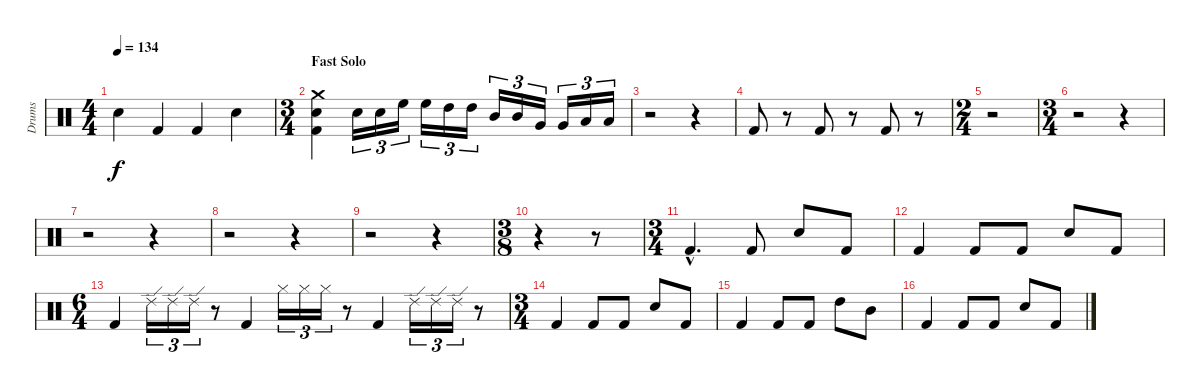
\track ("Drums" "Drums") {instrument percussion}
\staff {score}
\articulation defaults
\ts (4 4)
\tempo 134
\clef neutral
\ks c "Snare (hit) 2".4{dy f} "Kick (hit) 2".4 "Kick (hit) 2".4 "Snare (hit) 2".4
|
\ts (3 4)
\section ("" "Fast Solo")
("Kick (hit) 2" "Snare (hit) 2" "Crash medium (hit)").4 "Snare (hit) 2".16{tu (3 2)} "Snare (hit) 2".16{tu (3 2)} "High Floor Tom (hit)".16{tu (3 2)} "High Floor Tom (hit)".16{tu (3 2)} "High Tom (hit)".16{tu (3 2)} "High Tom (hit)".16{tu (3 2)} "Mid Tom (hit)".16{tu (3 2)} "Mid Tom (hit)".16{tu (3 2)} "Very Low Tom (hit)".16{tu (3 2)} "Very Low Tom (hit)".16{tu (3 2)} "Low Floor Tom (hit)".16{tu (3 2)} "Low Floor Tom (hit)".16{tu (3 2)} |
r.2 r.4 |
"Kick (hit) 2".8 r.8 "Kick (hit) 2".8 r.8 "Kick (hit) 2".8 r.8 |
\ts (2 4)
r.2 |
\ts (3 4)
r.2 r.4 |
r.2 r.4 |
r.2 r.4 |
r.2 r.4 |
\ts (3 8)
r.4 r.8 |
\ts (3 4)
"Kick (hit) 2"{hac}.4{d} "Kick (hit) 2".8 "Snare (hit) 2".8 "Kick (hit) 2".8 |
"Kick (hit) 2".4 "Kick (hit) 2".8 "Kick (hit) 2".8 "Snare (hit) 2".8 "Kick (hit) 2".8 |
\ts (6 4)
"Kick (hit) 2".4 "Ride (edge) 2".16{tu (3 2)} "Ride (edge) 2".16{tu (3 2)} "Ride (edge) 2".16{tu (3 2)} r.8 "Kick (hit) 2".4 "Hi-Hat (closed)".16{tu (3 2)} "Hi-Hat (closed)".16{tu (3 2)} "Hi-Hat (closed)".16{tu (3 2)} r.8 "Kick (hit) 2".4 "Ride (edge) 2".16{tu (3 2)} "Ride (edge) 2".16{tu (3 2)} "Ride (edge) 2".16{tu (3 2)} r.8 |
\ts (3 4)
"Kick (hit) 2".4 "Kick (hit) 2".8 "Kick (hit) 2".8 "Snare (hit) 2".8 "Kick (hit) 2".8 |
"Kick (hit) 2".4 "Kick (hit) 2".8 "Kick (hit) 2".8 "High Tom (hit)".8 "Mid Tom (hit)".8 |
"Kick (hit) 2".4 "Kick (hit) 2".8 "Kick (hit) 2".8 "Snare (hit) 2".8 "Kick (hit) 2".8
